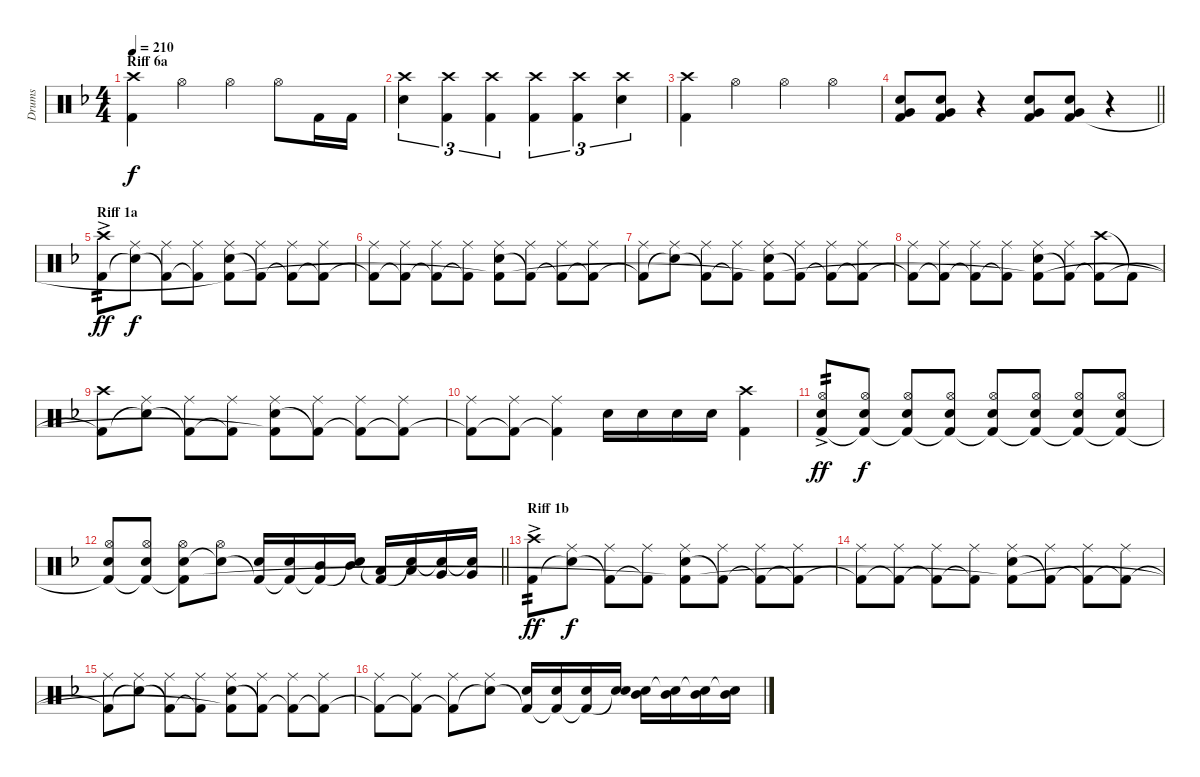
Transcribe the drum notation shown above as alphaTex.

\track ("Drums" "Drums") {instrument percussion}
\staff {score}
\articulation defaults
\ts (4 4)
\section ("" "Riff 6a")
\tempo 210
\clef neutral
\ks dminor
("Crash high (hit)" "Kick (hit) 2").4{dy f} "Hi-Hat (open)".4 "Hi-Hat (open)".4 "Hi-Hat (open)".8 "Kick (hit) 2".16 "Kick (hit) 2".16 |
("Crash high (hit)" "Electric Snare (hit)").4{tu (3 2)} ("Crash high (hit)" "Kick (hit) 2").4{tu (3 2)} ("Crash high (hit)" "Kick (hit) 2").4{tu (3 2)} ("Crash high (hit)" "Kick (hit) 2").4{tu (3 2)} ("Crash high (hit)" "Kick (hit) 2").4{tu (3 2)} ("Crash high (hit)" "Electric Snare (hit)").4{tu (3 2)} |
("Crash high (hit)" "Kick (hit) 2").4 "Hi-Hat (open)".4 "Hi-Hat (open)".4 "Hi-Hat (open)".4 |
\barLineRight lightlight
("Electric Snare (hit)" "Very Low Tom (hit)" "Kick (hit) 2").8 ("Electric Snare (hit)" "Very Low Tom (hit)" "Kick (hit) 2").8 r.4 ("Electric Snare (hit)" "Very Low Tom (hit)" "Kick (hit) 2").8 ("Electric Snare (hit)" "Very Low Tom (hit)" "Kick (hit) 2").8 r.4 |
\section ("" "Riff 1a")
("Crash high (hit)" "Kick (hit) 2"{ac}).8{tp 2 dy ff} ("Ride (middle)" "Snare (hit)"{t}).8{dy f} ("Ride (middle)" "Kick (hit) 2"{t}).8 ("Ride (middle)" "Kick (hit) 2"{t}).8 ("Ride (middle)" "Electric Snare (hit)" "Kick (hit) 2"{t}).8 ("Ride (middle)" "Kick (hit) 2"{t}).8 ("Ride (middle)" "Kick (hit) 2"{t}).8 ("Ride (middle)" "Kick (hit) 2"{t}).8 |
("Ride (middle)" "Kick (hit) 2"{t}).8 ("Ride (middle)" "Kick (hit) 2"{t}).8 ("Ride (middle)" "Kick (hit) 2"{t}).8 ("Ride (middle)" "Kick (hit) 2"{t}).8 ("Ride (middle)" "Electric Snare (hit)" "Kick (hit) 2"{t}).8 ("Ride (middle)" "Kick (hit) 2"{t}).8 ("Ride (middle)" "Kick (hit) 2"{t}).8 ("Ride (middle)" "Kick (hit) 2"{t}).8 |
("Ride (middle)" "Kick (hit) 2"{t}).8 ("Ride (middle)" "Snare (hit)"{t}).8 ("Ride (middle)" "Kick (hit) 2"{t}).8 ("Ride (middle)" "Kick (hit) 2"{t}).8 ("Ride (middle)" "Electric Snare (hit)" "Kick (hit) 2"{t}).8 ("Ride (middle)" "Kick (hit) 2"{t}).8 ("Ride (middle)" "Kick (hit) 2"{t}).8 ("Ride (middle)" "Kick (hit) 2"{t}).8 |
("Ride (middle)" "Kick (hit) 2"{t}).8 ("Ride (middle)" "Kick (hit) 2"{t}).8 ("Ride (middle)" "Kick (hit) 2"{t}).8 ("Ride (middle)" "Kick (hit) 2"{t}).8 ("Ride (middle)" "Electric Snare (hit)" "Kick (hit) 2"{t}).8 ("Ride (middle)" "Kick (hit) 2"{t}).8 ("Crash high (hit)" "Kick (hit) 2"{t}).8 "Kick (hit) 2"{t}.8 |
("Crash high (hit)" "Kick (hit) 2"{t}).8 ("Ride (middle)" "Snare (hit)"{t}).8 ("Ride (middle)" "Kick (hit) 2"{t}).8 ("Ride (middle)" "Kick (hit) 2"{t}).8 ("Ride (middle)" "Electric Snare (hit)" "Kick (hit) 2"{t}).8 ("Ride (middle)" "Kick (hit) 2"{t}).8 ("Ride (middle)" "Kick (hit) 2"{t}).8 ("Ride (middle)" "Kick (hit) 2"{t}).8 |
("Ride (middle)" "Kick (hit) 2"{t}).8 ("Ride (middle)" "Kick (hit) 2"{t}).8 ("Ride (middle)" "Kick (hit) 2"{t}).4 "Electric Snare (hit)".16 "Electric Snare (hit)".16 "Electric Snare (hit)".16 "Electric Snare (hit)".16 ("Crash high (hit)" "Kick (hit) 2").4 |
("Hi-Hat (open)" "Electric Snare (hit)" "Kick (hit) 2"{ac}).8{tp 2 dy ff} ("Hi-Hat (open)" "Electric Snare (hit)" "Kick (hit) 2"{t}).8{dy f} ("Hi-Hat (open)" "Electric Snare (hit)" "Kick (hit) 2"{t}).8 ("Hi-Hat (open)" "Electric Snare (hit)" "Kick (hit) 2"{t}).8 ("Hi-Hat (open)" "Electric Snare (hit)" "Kick (hit) 2"{t}).8 ("Hi-Hat (open)" "Electric Snare (hit)" "Kick (hit) 2"{t}).8 ("Hi-Hat (open)" "Electric Snare (hit)" "Kick (hit) 2"{t}).8 ("Hi-Hat (open)" "Electric Snare (hit)" "Kick (hit) 2"{t}).8 |
\barLineRight lightlight
("Hi-Hat (open)" "Electric Snare (hit)" "Kick (hit) 2"{t}).8 ("Hi-Hat (open)" "Electric Snare (hit)" "Kick (hit) 2"{t}).8 ("Hi-Hat (open)" "Electric Snare (hit)" "Kick (hit) 2"{t}).8 ("Hi-Hat (open)" "Snare (hit)"{t}).8 ("Electric Snare (hit)" "Kick (hit) 2"{t}).16 ("Electric Snare (hit)" "Kick (hit) 2"{t}).16 ("Mid Tom (hit)" "Kick (hit) 2"{t}).16 ("Mid Tom (hit)" "Snare (hit)"{t}).16 ("Low Tom (hit)" "Kick (hit) 2"{t}).16 ("Low Tom (hit)" "Snare (hit)"{t}).16 ("Very Low Tom (hit)" "Snare (hit)"{t}).16 ("Very Low Tom (hit)" "Snare (hit)"{t}).16 |
\section ("" "Riff 1b")
("Crash high (hit)" "Kick (hit) 2"{ac}).8{tp 2 dy ff} ("Ride (middle)" "Snare (hit)"{t}).8{dy f} ("Ride (middle)" "Kick (hit) 2"{t}).8 ("Ride (middle)" "Kick (hit) 2"{t}).8 ("Ride (middle)" "Electric Snare (hit)" "Kick (hit) 2"{t}).8 ("Ride (middle)" "Kick (hit) 2"{t}).8 ("Ride (middle)" "Kick (hit) 2"{t}).8 ("Ride (middle)" "Kick (hit) 2"{t}).8 |
("Ride (middle)" "Kick (hit) 2"{t}).8 ("Ride (middle)" "Kick (hit) 2"{t}).8 ("Ride (middle)" "Kick (hit) 2"{t}).8 ("Ride (middle)" "Kick (hit) 2"{t}).8 ("Ride (middle)" "Electric Snare (hit)" "Kick (hit) 2"{t}).8 ("Ride (middle)" "Kick (hit) 2"{t}).8 ("Ride (middle)" "Kick (hit) 2"{t}).8 ("Ride (middle)" "Kick (hit) 2"{t}).8 |
("Ride (middle)" "Kick (hit) 2"{t}).8 ("Ride (middle)" "Snare (hit)"{t}).8 ("Ride (middle)" "Kick (hit) 2"{t}).8 ("Ride (middle)" "Kick (hit) 2"{t}).8 ("Ride (middle)" "Electric Snare (hit)" "Kick (hit) 2"{t}).8 ("Ride (middle)" "Kick (hit) 2"{t}).8 ("Ride (middle)" "Kick (hit) 2"{t}).8 ("Ride (middle)" "Kick (hit) 2"{t}).8 |
("Ride (middle)" "Kick (hit) 2"{t}).8 ("Ride (middle)" "Kick (hit) 2"{t}).8 ("Ride (middle)" "Kick (hit) 2"{t}).8 ("Ride (middle)" "Snare (hit)"{t}).8 ("Electric Snare (hit)" "Kick (hit) 2"{t}).16 ("Electric Snare (hit)" "Kick (hit) 2"{t}).16 ("Electric Snare (hit)" "Kick (hit) 2"{t}).16 ("Electric Snare (hit)" "Snare (hit)"{t}).16 ("Mid Tom (hit)" "Snare (hit)"{t}).16 ("Mid Tom (hit)" "Snare (hit)"{t}).16 ("Mid Tom (hit)" "Snare (hit)"{t}).16 ("Mid Tom (hit)" "Snare (hit)"{t}).16
